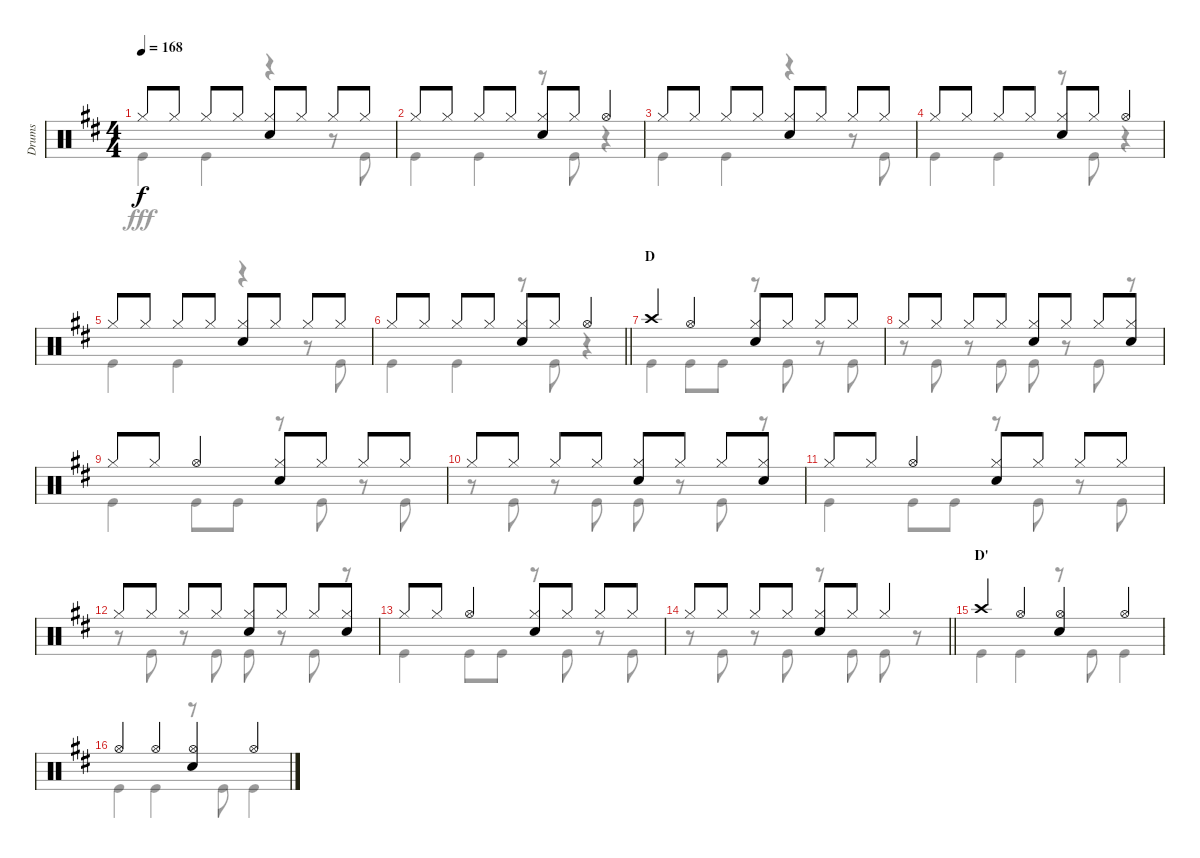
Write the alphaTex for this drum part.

\track ("Drums" "Drums") {instrument percussion}
\staff {score}
\articulation defaults
\voice
\ts (4 4)
\tempo 168
\clef neutral
\ks d "Hi-Hat (closed)".8{dy f} "Hi-Hat (closed)".8 "Hi-Hat (closed)".8 "Hi-Hat (closed)".8
("Hi-Hat (closed)" "Snare (hit) 2").8 "Hi-Hat (closed)".8 "Hi-Hat (closed)".8 "Hi-Hat (closed)".8 |
"Hi-Hat (closed)".8 "Hi-Hat (closed)".8 "Hi-Hat (closed)".8 "Hi-Hat (closed)".8 ("Hi-Hat (closed)" "Snare (hit) 2").8 "Hi-Hat (closed)".8 "Hi-Hat (open)".4 |
"Hi-Hat (closed)".8 "Hi-Hat (closed)".8 "Hi-Hat (closed)".8 "Hi-Hat (closed)".8 ("Hi-Hat (closed)" "Snare (hit) 2").8 "Hi-Hat (closed)".8 "Hi-Hat (closed)".8 "Hi-Hat (closed)".8 |
"Hi-Hat (closed)".8 "Hi-Hat (closed)".8 "Hi-Hat (closed)".8 "Hi-Hat (closed)".8 ("Hi-Hat (closed)" "Snare (hit) 2").8 "Hi-Hat (closed)".8 "Hi-Hat (open)".4 |
"Hi-Hat (closed)".8 "Hi-Hat (closed)".8 "Hi-Hat (closed)".8 "Hi-Hat (closed)".8 ("Hi-Hat (closed)" "Snare (hit) 2").8 "Hi-Hat (closed)".8 "Hi-Hat (closed)".8 "Hi-Hat (closed)".8 |
\barLineRight lightlight "Hi-Hat (closed)".8 "Hi-Hat (closed)".8 "Hi-Hat (closed)".8 "Hi-Hat (closed)".8
("Hi-Hat (closed)" "Snare (hit) 2").8 "Hi-Hat (closed)".8 "Hi-Hat (open)".4 |
\section ("" "D")
"Crash high (hit)".4 "Hi-Hat (open)".4 ("Hi-Hat (closed)" "Snare (hit) 2").8 "Hi-Hat (closed)".8 "Hi-Hat (closed)".8 "Hi-Hat (closed)".8 |
"Hi-Hat (closed)".8 "Hi-Hat (closed)".8 "Hi-Hat (closed)".8 "Hi-Hat (closed)".8 ("Hi-Hat (closed)" "Snare (hit) 2").8 "Hi-Hat (closed)".8 "Hi-Hat (closed)".8 ("Hi-Hat (closed)" "Snare (hit) 2").8 |
"Hi-Hat (closed)".8 "Hi-Hat (closed)".8 "Hi-Hat (open)".4 ("Hi-Hat (closed)" "Snare (hit) 2").8 "Hi-Hat (closed)".8 "Hi-Hat (closed)".8 "Hi-Hat (closed)".8 |
"Hi-Hat (closed)".8 "Hi-Hat (closed)".8 "Hi-Hat (closed)".8 "Hi-Hat (closed)".8 ("Hi-Hat (closed)" "Snare (hit) 2").8 "Hi-Hat (closed)".8 "Hi-Hat (closed)".8 ("Hi-Hat (closed)" "Snare (hit) 2").8 |
"Hi-Hat (closed)".8 "Hi-Hat (closed)".8 "Hi-Hat (open)".4 ("Hi-Hat (closed)" "Snare (hit) 2").8 "Hi-Hat (closed)".8 "Hi-Hat (closed)".8 "Hi-Hat (closed)".8 |
"Hi-Hat (closed)".8 "Hi-Hat (closed)".8 "Hi-Hat (closed)".8 "Hi-Hat (closed)".8 ("Hi-Hat (closed)" "Snare (hit) 2").8 "Hi-Hat (closed)".8 "Hi-Hat (closed)".8 ("Hi-Hat (closed)" "Snare (hit) 2").8 |
"Hi-Hat (closed)".8 "Hi-Hat (closed)".8 "Hi-Hat (open)".4 ("Hi-Hat (closed)" "Snare (hit) 2").8 "Hi-Hat (closed)".8 "Hi-Hat (closed)".8 "Hi-Hat (closed)".8 |
\barLineRight lightlight "Hi-Hat (closed)".8 "Hi-Hat (closed)".8 "Hi-Hat (closed)".8 "Hi-Hat (closed)".8
("Hi-Hat (closed)" "Snare (hit) 2").8 "Hi-Hat (closed)".8 "Hi-Hat (closed)".4 |
\section ("" "D'")
"Crash high (hit)".4 "Hi-Hat (open)".4 ("Hi-Hat (open)" "Snare (hit) 2").4 "Hi-Hat (open)".4 |
"Hi-Hat (open)".4 "Hi-Hat (open)".4 ("Hi-Hat (open)" "Snare (hit) 2").4 "Hi-Hat (open)".4
\voice
\clef neutral
\ottava regular
\simile none
\ks d "Kick (hit)".4{dy fff} "Kick (hit)".4
r.4 r.8 "Kick (hit)".8 |
"Kick (hit)".4 "Kick (hit)".4 r.8 "Kick (hit)".8 r.4 |
"Kick (hit)".4 "Kick (hit)".4 r.4 r.8 "Kick (hit)".8 |
"Kick (hit)".4 "Kick (hit)".4 r.8 "Kick (hit)".8 r.4 |
"Kick (hit)".4 "Kick (hit)".4 r.4 r.8 "Kick (hit)".8 |
\barLineRight lightlight "Kick (hit)".4 "Kick (hit)".4
r.8 "Kick (hit)".8 r.4 |
"Kick (hit)".4 "Kick (hit)".8 "Kick (hit)".8 r.8 "Kick (hit)".8 r.8 "Kick (hit)".8 |
r.8 "Kick (hit)".8 r.8 "Kick (hit)".8 "Kick (hit)".8 r.8 "Kick (hit)".8 r.8 |
"Kick (hit)".4 "Kick (hit)".8 "Kick (hit)".8 r.8 "Kick (hit)".8 r.8 "Kick (hit)".8 |
r.8 "Kick (hit)".8 r.8 "Kick (hit)".8 "Kick (hit)".8 r.8 "Kick (hit)".8 r.8 |
"Kick (hit)".4 "Kick (hit)".8 "Kick (hit)".8 r.8 "Kick (hit)".8 r.8 "Kick (hit)".8 |
r.8 "Kick (hit)".8 r.8 "Kick (hit)".8 "Kick (hit)".8 r.8 "Kick (hit)".8 r.8 |
"Kick (hit)".4 "Kick (hit)".8 "Kick (hit)".8 r.8 "Kick (hit)".8 r.8 "Kick (hit)".8 |
\barLineRight lightlight
r.8 "Kick (hit)".8 r.8 "Kick (hit)".8 r.8 "Kick (hit)".8 "Kick (hit)".8 r.8 |
"Kick (hit)".4 "Kick (hit)".4 r.8 "Kick (hit)".8 "Kick (hit)".4 |
"Kick (hit)".4 "Kick (hit)".4 r.8 "Kick (hit)".8 "Kick (hit)".4
